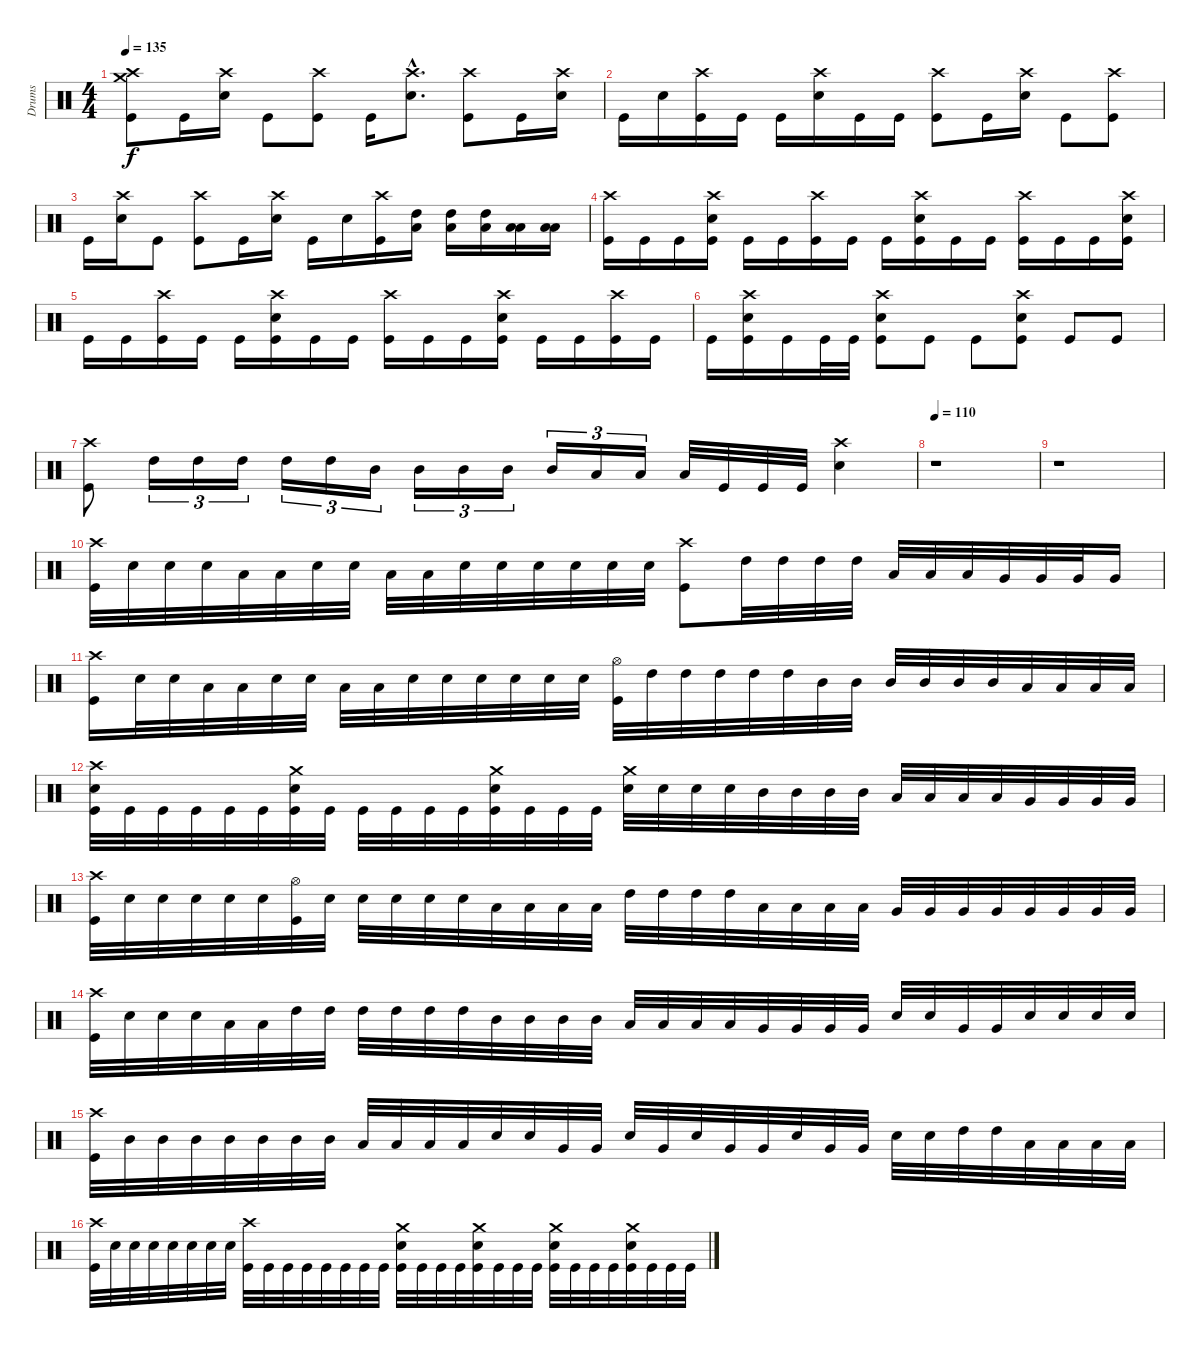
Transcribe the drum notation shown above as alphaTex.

\track ("Drums" "Drums") {instrument percussion}
\staff {score}
\articulation defaults
\ts (4 4)
\tempo 135
\clef neutral
\ks c
("Crash medium (hit)" "Crash high (hit)" "Kick (hit)").8{dy f} "Kick (hit)".16 ("Crash high (hit)" "Electric Snare (hit)").16 "Kick (hit)".8 ("Crash high (hit)" "Kick (hit)").8 "Kick (hit)".16 ("Crash high (hit)"{hac} "Electric Snare (hit)"{hac}).8{d} ("Crash high (hit)" "Kick (hit)").8 "Kick (hit)".16 ("Crash high (hit)" "Electric Snare (hit)").16 |
"Kick (hit)".16 "Electric Snare (hit)".16 ("Crash high (hit)" "Kick (hit)").16 "Kick (hit)".16 "Kick (hit)".16 ("Crash high (hit)" "Electric Snare (hit)").16 "Kick (hit)".16 "Kick (hit)".16 ("Crash high (hit)" "Kick (hit)").8 "Kick (hit)".16 ("Crash high (hit)" "Electric Snare (hit)").16 "Kick (hit)".8 ("Crash high (hit)" "Kick (hit)").8 |
"Kick (hit)".16 ("Crash high (hit)" "Electric Snare (hit)").16 "Kick (hit)".8 ("Crash high (hit)" "Kick (hit)").8 "Kick (hit)".16 ("Crash high (hit)" "Electric Snare (hit)").16 "Kick (hit)".16 "Electric Snare (hit)".16 ("Crash high (hit)" "Kick (hit)").16 ("High Tom (hit)" "Low Floor Tom (hit)").16 ("High Tom (hit)" "Low Floor Tom (hit)").16 ("High Tom (hit)" "Low Floor Tom (hit)").16 ("Low Tom (hit)" "Low Floor Tom (hit)").16 ("Low Tom (hit)" "Low Floor Tom (hit)").16 |
("Crash high (hit)" "Kick (hit)").16 "Kick (hit)".16 "Kick (hit)".16 ("Crash high (hit)" "Electric Snare (hit)" "Kick (hit)").16 "Kick (hit)".16 "Kick (hit)".16 ("Crash high (hit)" "Kick (hit)").16 "Kick (hit)".16 "Kick (hit)".16 ("Crash high (hit)" "Electric Snare (hit)" "Kick (hit)").16 "Kick (hit)".16 "Kick (hit)".16 ("Crash high (hit)" "Kick (hit)").16 "Kick (hit)".16 "Kick (hit)".16 ("Crash high (hit)" "Electric Snare (hit)" "Kick (hit)").16 |
"Kick (hit)".16 "Kick (hit)".16 ("Crash high (hit)" "Kick (hit)").16 "Kick (hit)".16 "Kick (hit)".16 ("Crash high (hit)" "Electric Snare (hit)" "Kick (hit)").16 "Kick (hit)".16 "Kick (hit)".16 ("Crash high (hit)" "Kick (hit)").16 "Kick (hit)".16 "Kick (hit)".16 ("Crash high (hit)" "Electric Snare (hit)" "Kick (hit)").16 "Kick (hit)".16 "Kick (hit)".16 ("Crash high (hit)" "Kick (hit)").16 "Kick (hit)".16 |
"Kick (hit)".16 ("Crash high (hit)" "Electric Snare (hit)" "Kick (hit)").16 "Kick (hit)".16 "Kick (hit)".32 "Kick (hit)".32 ("Crash high (hit)" "Electric Snare (hit)" "Kick (hit)").8 "Kick (hit)".8 "Kick (hit)".8 ("Crash high (hit)" "Electric Snare (hit)" "Kick (hit)").8 "Kick (hit)".8 "Kick (hit)".8 |
("Crash high (hit)" "Kick (hit)").8 "High Tom (hit)".16{tu (3 2)} "High Tom (hit)".16{tu (3 2)} "High Tom (hit)".16{tu (3 2)} "High Tom (hit)".16{tu (3 2)} "High Tom (hit)".16{tu (3 2)} "Mid Tom (hit)".16{tu (3 2)} "Mid Tom (hit)".16{tu (3 2)} "Mid Tom (hit)".16{tu (3 2)} "Mid Tom (hit)".16{tu (3 2)} "Mid Tom (hit)".16{tu (3 2)} "Low Tom (hit)".16{tu (3 2)} "Low Tom (hit)".16{tu (3 2)} "Low Tom (hit)".32 "Kick (hit)".32 "Kick (hit)".32 "Kick (hit)".32 ("Crash high (hit)" "Electric Snare (hit)").4 |
\tempo 110
r.1 |
r.1 |
("Crash high (hit)" "Kick (hit)").32 "Electric Snare (hit)".32 "Electric Snare (hit)".32 "Electric Snare (hit)".32 "Low Tom (hit)".32 "Low Tom (hit)".32 "Electric Snare (hit)".32 "Electric Snare (hit)".32 "Low Tom (hit)".32 "Low Tom (hit)".32 "Electric Snare (hit)".32 "Electric Snare (hit)".32 "Electric Snare (hit)".32 "Electric Snare (hit)".32 "Electric Snare (hit)".32 "Electric Snare (hit)".32 ("Crash high (hit)" "Kick (hit)").8 "High Tom (hit)".32 "High Tom (hit)".32 "High Tom (hit)".32 "High Tom (hit)".32 "Low Tom (hit)".32 "Low Tom (hit)".32 "Low Tom (hit)".32 "Very Low Tom (hit)".32 "Very Low Tom (hit)".32 "Very Low Tom (hit)".32 "Very Low Tom (hit)".16 |
("Crash high (hit)" "Kick (hit)").16 "Electric Snare (hit)".32 "Electric Snare (hit)".32 "Low Tom (hit)".32 "Low Tom (hit)".32 "Electric Snare (hit)".32 "Electric Snare (hit)".32 "Low Tom (hit)".32 "Low Tom (hit)".32 "Electric Snare (hit)".32 "Electric Snare (hit)".32 "Electric Snare (hit)".32 "Electric Snare (hit)".32 "Electric Snare (hit)".32 "Electric Snare (hit)".32 ("Hi-Hat (open)" "Kick (hit)").32 "High Tom (hit)".32 "High Tom (hit)".32 "High Tom (hit)".32 "High Tom (hit)".32 "High Tom (hit)".32 "Mid Tom (hit)".32 "Mid Tom (hit)".32 "Mid Tom (hit)".32 "Mid Tom (hit)".32 "Mid Tom (hit)".32 "Mid Tom (hit)".32 "Low Tom (hit)".32 "Low Tom (hit)".32 "Low Tom (hit)".32 "Low Tom (hit)".32 |
("Crash high (hit)" "Electric Snare (hit)" "Kick (hit)").32 "Kick (hit)".32 "Kick (hit)".32 "Kick (hit)".32 "Kick (hit)".32 "Kick (hit)".32 ("Crash medium (hit)" "Electric Snare (hit)" "Kick (hit)").32 "Kick (hit)".32 "Kick (hit)".32 "Kick (hit)".32 "Kick (hit)".32 "Kick (hit)".32 ("Crash medium (hit)" "Electric Snare (hit)" "Kick (hit)").32 "Kick (hit)".32 "Kick (hit)".32 "Kick (hit)".32 ("Crash medium (hit)" "Electric Snare (hit)").32 "Electric Snare (hit)".32 "Electric Snare (hit)".32 "Electric Snare (hit)".32 "Mid Tom (hit)".32 "Mid Tom (hit)".32 "Mid Tom (hit)".32 "Mid Tom (hit)".32 "Low Tom (hit)".32 "Low Tom (hit)".32 "Low Tom (hit)".32 "Low Tom (hit)".32 "Very Low Tom (hit)".32 "Very Low Tom (hit)".32 "Very Low Tom (hit)".32 "Very Low Tom (hit)".32 |
("Crash high (hit)" "Kick (hit)").32 "Electric Snare (hit)".32 "Electric Snare (hit)".32 "Electric Snare (hit)".32 "Electric Snare (hit)".32 "Electric Snare (hit)".32 ("Hi-Hat (open)" "Kick (hit)").32 "Electric Snare (hit)".32 "Electric Snare (hit)".32 "Electric Snare (hit)".32 "Electric Snare (hit)".32 "Electric Snare (hit)".32 "Low Tom (hit)".32 "Low Tom (hit)".32 "Low Tom (hit)".32 "Low Tom (hit)".32 "High Tom (hit)".32 "High Tom (hit)".32 "High Tom (hit)".32 "High Tom (hit)".32 "Low Tom (hit)".32 "Low Tom (hit)".32 "Low Tom (hit)".32 "Low Tom (hit)".32 "Very Low Tom (hit)".32 "Very Low Tom (hit)".32 "Very Low Tom (hit)".32 "Very Low Tom (hit)".32 "Very Low Tom (hit)".32 "Very Low Tom (hit)".32 "Very Low Tom (hit)".32 "Very Low Tom (hit)".32 |
("Crash high (hit)" "Kick (hit)").32 "Electric Snare (hit)".32 "Electric Snare (hit)".32 "Electric Snare (hit)".32 "Low Tom (hit)".32 "Low Tom (hit)".32 "High Tom (hit)".32 "High Tom (hit)".32 "High Tom (hit)".32 "High Tom (hit)".32 "High Tom (hit)".32 "High Tom (hit)".32 "Mid Tom (hit)".32 "Mid Tom (hit)".32 "Mid Tom (hit)".32 "Mid Tom (hit)".32 "Low Tom (hit)".32 "Low Tom (hit)".32 "Low Tom (hit)".32 "Low Tom (hit)".32 "Very Low Tom (hit)".32 "Very Low Tom (hit)".32 "Very Low Tom (hit)".32 "Very Low Tom (hit)".32 "Electric Snare (hit)".32 "Electric Snare (hit)".32 "Very Low Tom (hit)".32 "Very Low Tom (hit)".32 "Electric Snare (hit)".32 "Electric Snare (hit)".32 "Electric Snare (hit)".32 "Electric Snare (hit)".32 |
("Crash high (hit)" "Kick (hit)").32 "Mid Tom (hit)".32 "Mid Tom (hit)".32 "Mid Tom (hit)".32 "Mid Tom (hit)".32 "Mid Tom (hit)".32 "Mid Tom (hit)".32 "Mid Tom (hit)".32 "Low Tom (hit)".32 "Low Tom (hit)".32 "Low Tom (hit)".32 "Low Tom (hit)".32 "Electric Snare (hit)".32 "Electric Snare (hit)".32 "Very Low Tom (hit)".32 "Very Low Tom (hit)".32 "Electric Snare (hit)".32 "Very Low Tom (hit)".32 "Electric Snare (hit)".32 "Very Low Tom (hit)".32 "Very Low Tom (hit)".32 "Electric Snare (hit)".32 "Very Low Tom (hit)".32 "Very Low Tom (hit)".32 "Electric Snare (hit)".32 "Electric Snare (hit)".32 "High Tom (hit)".32 "High Tom (hit)".32 "Low Tom (hit)".32 "Low Tom (hit)".32 "Low Tom (hit)".32 "Low Tom (hit)".32 |
("Crash high (hit)" "Kick (hit)").32 "Electric Snare (hit)".32 "Electric Snare (hit)".32 "Electric Snare (hit)".32 "Electric Snare (hit)".32 "Electric Snare (hit)".32 "Electric Snare (hit)".32 "Electric Snare (hit)".32 ("Crash high (hit)" "Kick (hit)").32 "Kick (hit)".32 "Kick (hit)".32 "Kick (hit)".32 "Kick (hit)".32 "Kick (hit)".32 "Kick (hit)".32 "Kick (hit)".32 ("Crash medium (hit)" "Electric Snare (hit)" "Kick (hit)").32 "Kick (hit)".32 "Kick (hit)".32 "Kick (hit)".32 ("Crash medium (hit)" "Electric Snare (hit)" "Kick (hit)").32 "Kick (hit)".32 "Kick (hit)".32 "Kick (hit)".32 ("Crash medium (hit)" "Electric Snare (hit)" "Kick (hit)").32 "Kick (hit)".32 "Kick (hit)".32 "Kick (hit)".32 ("Crash medium (hit)" "Electric Snare (hit)" "Kick (hit)").32 "Kick (hit)".32 "Kick (hit)".32 "Kick (hit)".32
